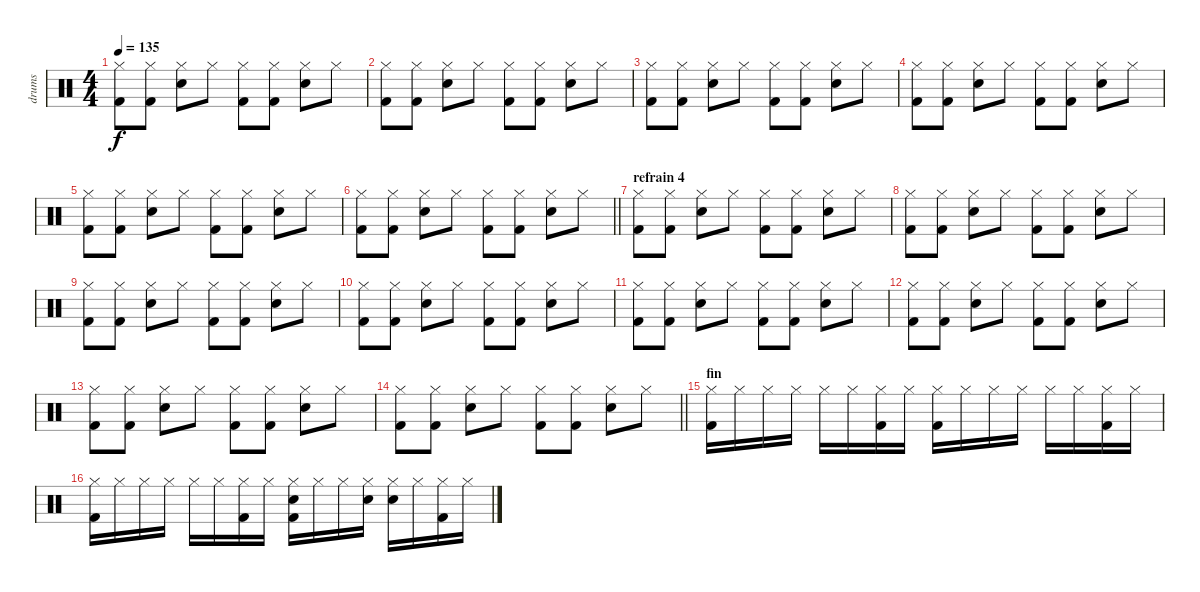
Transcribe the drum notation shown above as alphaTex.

\track ("drums" "drums") {instrument percussion}
\staff {score}
\articulation defaults
\ts (4 4)
\tempo 135
\clef neutral
\ks c
("Hi-Hat (closed)" "Kick (hit) 2").8{dy f} ("Hi-Hat (closed)" "Kick (hit) 2").8 ("Hi-Hat (closed)" "Electric Snare (hit)").8 "Hi-Hat (closed)".8 ("Hi-Hat (closed)" "Kick (hit) 2").8 ("Hi-Hat (closed)" "Kick (hit) 2").8 ("Hi-Hat (closed)" "Electric Snare (hit)").8 "Hi-Hat (closed)".8 |
("Hi-Hat (closed)" "Kick (hit) 2").8 ("Hi-Hat (closed)" "Kick (hit) 2").8 ("Hi-Hat (closed)" "Electric Snare (hit)").8 "Hi-Hat (closed)".8 ("Hi-Hat (closed)" "Kick (hit) 2").8 ("Hi-Hat (closed)" "Kick (hit) 2").8 ("Hi-Hat (closed)" "Electric Snare (hit)").8 "Hi-Hat (closed)".8 |
("Hi-Hat (closed)" "Kick (hit) 2").8 ("Hi-Hat (closed)" "Kick (hit) 2").8 ("Hi-Hat (closed)" "Electric Snare (hit)").8 "Hi-Hat (closed)".8 ("Hi-Hat (closed)" "Kick (hit) 2").8 ("Hi-Hat (closed)" "Kick (hit) 2").8 ("Hi-Hat (closed)" "Electric Snare (hit)").8 "Hi-Hat (closed)".8 |
("Hi-Hat (closed)" "Kick (hit) 2").8 ("Hi-Hat (closed)" "Kick (hit) 2").8 ("Hi-Hat (closed)" "Electric Snare (hit)").8 "Hi-Hat (closed)".8 ("Hi-Hat (closed)" "Kick (hit) 2").8 ("Hi-Hat (closed)" "Kick (hit) 2").8 ("Hi-Hat (closed)" "Electric Snare (hit)").8 "Hi-Hat (closed)".8 |
("Hi-Hat (closed)" "Kick (hit) 2").8 ("Hi-Hat (closed)" "Kick (hit) 2").8 ("Hi-Hat (closed)" "Electric Snare (hit)").8 "Hi-Hat (closed)".8 ("Hi-Hat (closed)" "Kick (hit) 2").8 ("Hi-Hat (closed)" "Kick (hit) 2").8 ("Hi-Hat (closed)" "Electric Snare (hit)").8 "Hi-Hat (closed)".8 |
\barLineRight lightlight
("Hi-Hat (closed)" "Kick (hit) 2").8 ("Hi-Hat (closed)" "Kick (hit) 2").8 ("Hi-Hat (closed)" "Electric Snare (hit)").8 "Hi-Hat (closed)".8 ("Hi-Hat (closed)" "Kick (hit) 2").8 ("Hi-Hat (closed)" "Kick (hit) 2").8 ("Hi-Hat (closed)" "Electric Snare (hit)").8 "Hi-Hat (closed)".8 |
\section ("" "refrain 4")
("Hi-Hat (closed)" "Kick (hit) 2").8 ("Hi-Hat (closed)" "Kick (hit) 2").8 ("Hi-Hat (closed)" "Electric Snare (hit)").8 "Hi-Hat (closed)".8 ("Hi-Hat (closed)" "Kick (hit) 2").8 ("Hi-Hat (closed)" "Kick (hit) 2").8 ("Hi-Hat (closed)" "Electric Snare (hit)").8 "Hi-Hat (closed)".8 |
("Hi-Hat (closed)" "Kick (hit) 2").8 ("Hi-Hat (closed)" "Kick (hit) 2").8 ("Hi-Hat (closed)" "Electric Snare (hit)").8 "Hi-Hat (closed)".8 ("Hi-Hat (closed)" "Kick (hit) 2").8 ("Hi-Hat (closed)" "Kick (hit) 2").8 ("Hi-Hat (closed)" "Electric Snare (hit)").8 "Hi-Hat (closed)".8 |
("Hi-Hat (closed)" "Kick (hit) 2").8 ("Hi-Hat (closed)" "Kick (hit) 2").8 ("Hi-Hat (closed)" "Electric Snare (hit)").8 "Hi-Hat (closed)".8 ("Hi-Hat (closed)" "Kick (hit) 2").8 ("Hi-Hat (closed)" "Kick (hit) 2").8 ("Hi-Hat (closed)" "Electric Snare (hit)").8 "Hi-Hat (closed)".8 |
("Hi-Hat (closed)" "Kick (hit) 2").8 ("Hi-Hat (closed)" "Kick (hit) 2").8 ("Hi-Hat (closed)" "Electric Snare (hit)").8 "Hi-Hat (closed)".8 ("Hi-Hat (closed)" "Kick (hit) 2").8 ("Hi-Hat (closed)" "Kick (hit) 2").8 ("Hi-Hat (closed)" "Electric Snare (hit)").8 "Hi-Hat (closed)".8 |
("Hi-Hat (closed)" "Kick (hit) 2").8 ("Hi-Hat (closed)" "Kick (hit) 2").8 ("Hi-Hat (closed)" "Electric Snare (hit)").8 "Hi-Hat (closed)".8 ("Hi-Hat (closed)" "Kick (hit) 2").8 ("Hi-Hat (closed)" "Kick (hit) 2").8 ("Hi-Hat (closed)" "Electric Snare (hit)").8 "Hi-Hat (closed)".8 |
("Hi-Hat (closed)" "Kick (hit) 2").8 ("Hi-Hat (closed)" "Kick (hit) 2").8 ("Hi-Hat (closed)" "Electric Snare (hit)").8 "Hi-Hat (closed)".8 ("Hi-Hat (closed)" "Kick (hit) 2").8 ("Hi-Hat (closed)" "Kick (hit) 2").8 ("Hi-Hat (closed)" "Electric Snare (hit)").8 "Hi-Hat (closed)".8 |
("Hi-Hat (closed)" "Kick (hit) 2").8 ("Hi-Hat (closed)" "Kick (hit) 2").8 ("Hi-Hat (closed)" "Electric Snare (hit)").8 "Hi-Hat (closed)".8 ("Hi-Hat (closed)" "Kick (hit) 2").8 ("Hi-Hat (closed)" "Kick (hit) 2").8 ("Hi-Hat (closed)" "Electric Snare (hit)").8 "Hi-Hat (closed)".8 |
\barLineRight lightlight
("Hi-Hat (closed)" "Kick (hit) 2").8 ("Hi-Hat (closed)" "Kick (hit) 2").8 ("Hi-Hat (closed)" "Electric Snare (hit)").8 "Hi-Hat (closed)".8 ("Hi-Hat (closed)" "Kick (hit) 2").8 ("Hi-Hat (closed)" "Kick (hit) 2").8 ("Hi-Hat (closed)" "Electric Snare (hit)").8 "Hi-Hat (closed)".8 |
\section ("" "fin")
("Hi-Hat (closed)" "Kick (hit) 2").16 "Hi-Hat (closed)".16 "Hi-Hat (closed)".16 "Hi-Hat (closed)".16 "Hi-Hat (closed)".16 "Hi-Hat (closed)".16 ("Hi-Hat (closed)" "Kick (hit) 2").16 "Hi-Hat (closed)".16 ("Hi-Hat (closed)" "Kick (hit) 2").16 "Hi-Hat (closed)".16 "Hi-Hat (closed)".16 "Hi-Hat (closed)".16 "Hi-Hat (closed)".16 "Hi-Hat (closed)".16 ("Hi-Hat (closed)" "Kick (hit) 2").16 "Hi-Hat (closed)".16 |
("Hi-Hat (closed)" "Kick (hit) 2").16 "Hi-Hat (closed)".16 "Hi-Hat (closed)".16 "Hi-Hat (closed)".16 "Hi-Hat (closed)".16 "Hi-Hat (closed)".16 ("Hi-Hat (closed)" "Kick (hit) 2").16 "Hi-Hat (closed)".16 ("Hi-Hat (closed)" "Electric Snare (hit)" "Kick (hit) 2").16 "Hi-Hat (closed)".16 "Hi-Hat (closed)".16 ("Hi-Hat (closed)" "Electric Snare (hit)").16 ("Hi-Hat (closed)" "Electric Snare (hit)").16 "Hi-Hat (closed)".16 ("Hi-Hat (closed)" "Kick (hit) 2").16 "Hi-Hat (closed)".16
